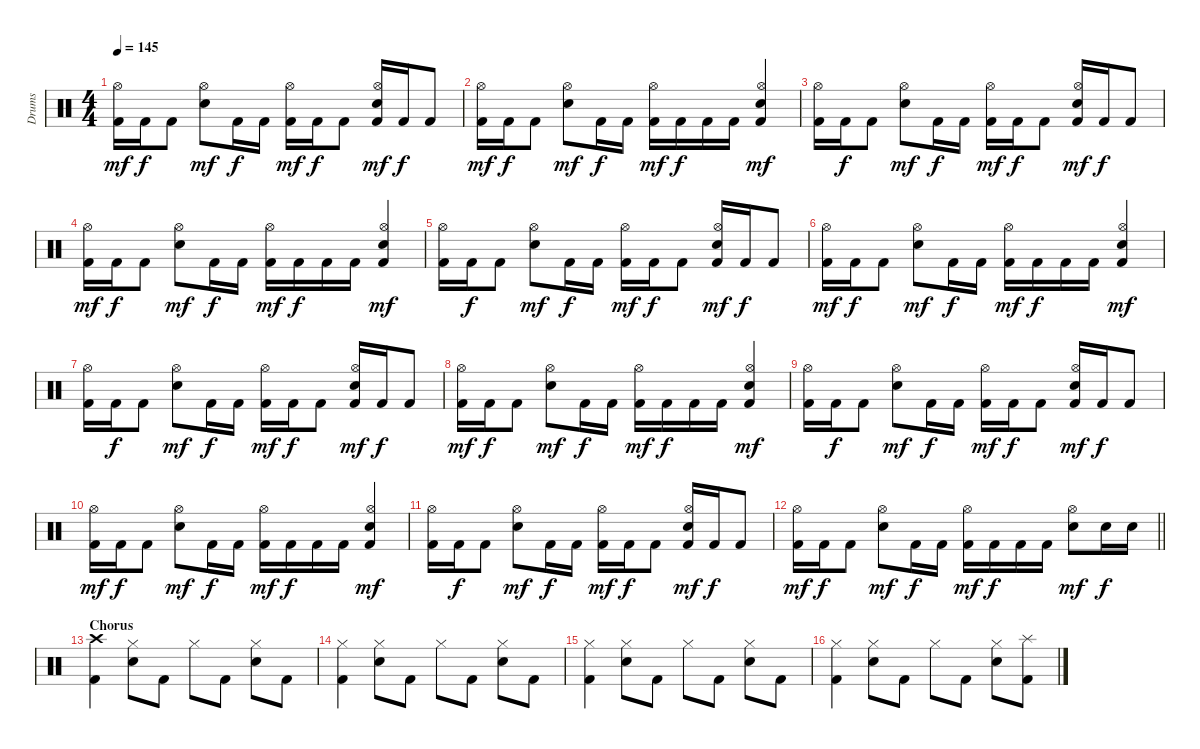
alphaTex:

\track ("Drums" "Drums") {instrument percussion}
\staff {score}
\articulation defaults
\ts (4 4)
\tempo 145
\clef neutral
\ks c
("Kick (hit) 2" "Hi-Hat (open)").16{dy mf} "Kick (hit) 2".16{dy f} "Kick (hit) 2".8 ("Hi-Hat (open)" "Electric Snare (hit)").8{dy mf} "Kick (hit) 2".16{dy f} "Kick (hit) 2".16 ("Kick (hit) 2" "Hi-Hat (open)").16{dy mf} "Kick (hit) 2".16{dy f} "Kick (hit) 2".8 ("Kick (hit) 2" "Hi-Hat (open)" "Electric Snare (hit)").16{dy mf} "Kick (hit) 2".16{dy f} "Kick (hit) 2".8 |
("Kick (hit) 2" "Hi-Hat (open)").16{dy mf} "Kick (hit) 2".16{dy f} "Kick (hit) 2".8 ("Hi-Hat (open)" "Electric Snare (hit)").8{dy mf} "Kick (hit) 2".16{dy f} "Kick (hit) 2".16 ("Kick (hit) 2" "Hi-Hat (open)").16{dy mf} "Kick (hit) 2".16{dy f} "Kick (hit) 2".16 "Kick (hit) 2".16 ("Kick (hit) 2" "Hi-Hat (open)" "Electric Snare (hit)").4{dy mf} |
("Kick (hit) 2" "Hi-Hat (open)").16 "Kick (hit) 2".16{dy f} "Kick (hit) 2".8 ("Hi-Hat (open)" "Electric Snare (hit)").8{dy mf} "Kick (hit) 2".16{dy f} "Kick (hit) 2".16 ("Kick (hit) 2" "Hi-Hat (open)").16{dy mf} "Kick (hit) 2".16{dy f} "Kick (hit) 2".8 ("Kick (hit) 2" "Hi-Hat (open)" "Electric Snare (hit)").16{dy mf} "Kick (hit) 2".16{dy f} "Kick (hit) 2".8 |
("Kick (hit) 2" "Hi-Hat (open)").16{dy mf} "Kick (hit) 2".16{dy f} "Kick (hit) 2".8 ("Hi-Hat (open)" "Electric Snare (hit)").8{dy mf} "Kick (hit) 2".16{dy f} "Kick (hit) 2".16 ("Kick (hit) 2" "Hi-Hat (open)").16{dy mf} "Kick (hit) 2".16{dy f} "Kick (hit) 2".16 "Kick (hit) 2".16 ("Kick (hit) 2" "Hi-Hat (open)" "Electric Snare (hit)").4{dy mf} |
("Kick (hit) 2" "Hi-Hat (open)").16 "Kick (hit) 2".16{dy f} "Kick (hit) 2".8 ("Hi-Hat (open)" "Electric Snare (hit)").8{dy mf} "Kick (hit) 2".16{dy f} "Kick (hit) 2".16 ("Kick (hit) 2" "Hi-Hat (open)").16{dy mf} "Kick (hit) 2".16{dy f} "Kick (hit) 2".8 ("Kick (hit) 2" "Hi-Hat (open)" "Electric Snare (hit)").16{dy mf} "Kick (hit) 2".16{dy f} "Kick (hit) 2".8 |
("Kick (hit) 2" "Hi-Hat (open)").16{dy mf} "Kick (hit) 2".16{dy f} "Kick (hit) 2".8 ("Hi-Hat (open)" "Electric Snare (hit)").8{dy mf} "Kick (hit) 2".16{dy f} "Kick (hit) 2".16 ("Kick (hit) 2" "Hi-Hat (open)").16{dy mf} "Kick (hit) 2".16{dy f} "Kick (hit) 2".16 "Kick (hit) 2".16 ("Kick (hit) 2" "Hi-Hat (open)" "Electric Snare (hit)").4{dy mf} |
("Kick (hit) 2" "Hi-Hat (open)").16 "Kick (hit) 2".16{dy f} "Kick (hit) 2".8 ("Hi-Hat (open)" "Electric Snare (hit)").8{dy mf} "Kick (hit) 2".16{dy f} "Kick (hit) 2".16 ("Kick (hit) 2" "Hi-Hat (open)").16{dy mf} "Kick (hit) 2".16{dy f} "Kick (hit) 2".8 ("Kick (hit) 2" "Hi-Hat (open)" "Electric Snare (hit)").16{dy mf} "Kick (hit) 2".16{dy f} "Kick (hit) 2".8 |
("Kick (hit) 2" "Hi-Hat (open)").16{dy mf} "Kick (hit) 2".16{dy f} "Kick (hit) 2".8 ("Hi-Hat (open)" "Electric Snare (hit)").8{dy mf} "Kick (hit) 2".16{dy f} "Kick (hit) 2".16 ("Kick (hit) 2" "Hi-Hat (open)").16{dy mf} "Kick (hit) 2".16{dy f} "Kick (hit) 2".16 "Kick (hit) 2".16 ("Kick (hit) 2" "Hi-Hat (open)" "Electric Snare (hit)").4{dy mf} |
("Kick (hit) 2" "Hi-Hat (open)").16 "Kick (hit) 2".16{dy f} "Kick (hit) 2".8 ("Hi-Hat (open)" "Electric Snare (hit)").8{dy mf} "Kick (hit) 2".16{dy f} "Kick (hit) 2".16 ("Kick (hit) 2" "Hi-Hat (open)").16{dy mf} "Kick (hit) 2".16{dy f} "Kick (hit) 2".8 ("Kick (hit) 2" "Hi-Hat (open)" "Electric Snare (hit)").16{dy mf} "Kick (hit) 2".16{dy f} "Kick (hit) 2".8 |
("Kick (hit) 2" "Hi-Hat (open)").16{dy mf} "Kick (hit) 2".16{dy f} "Kick (hit) 2".8 ("Hi-Hat (open)" "Electric Snare (hit)").8{dy mf} "Kick (hit) 2".16{dy f} "Kick (hit) 2".16 ("Kick (hit) 2" "Hi-Hat (open)").16{dy mf} "Kick (hit) 2".16{dy f} "Kick (hit) 2".16 "Kick (hit) 2".16 ("Kick (hit) 2" "Hi-Hat (open)" "Electric Snare (hit)").4{dy mf} |
("Kick (hit) 2" "Hi-Hat (open)").16 "Kick (hit) 2".16{dy f} "Kick (hit) 2".8 ("Hi-Hat (open)" "Electric Snare (hit)").8{dy mf} "Kick (hit) 2".16{dy f} "Kick (hit) 2".16 ("Kick (hit) 2" "Hi-Hat (open)").16{dy mf} "Kick (hit) 2".16{dy f} "Kick (hit) 2".8 ("Kick (hit) 2" "Hi-Hat (open)" "Electric Snare (hit)").16{dy mf} "Kick (hit) 2".16{dy f} "Kick (hit) 2".8 |
\barLineRight lightlight
("Kick (hit) 2" "Hi-Hat (open)").16{dy mf} "Kick (hit) 2".16{dy f} "Kick (hit) 2".8 ("Hi-Hat (open)" "Electric Snare (hit)").8{dy mf} "Kick (hit) 2".16{dy f} "Kick (hit) 2".16 ("Kick (hit) 2" "Hi-Hat (open)").16{dy mf} "Kick (hit) 2".16{dy f} "Kick (hit) 2".16 "Kick (hit) 2".16 ("Hi-Hat (open)" "Electric Snare (hit)").8{dy mf} "Electric Snare (hit)".16{dy f} "Electric Snare (hit)".16 |
\section ("" "Chorus")
("Kick (hit) 2" "Crash high (hit)").4 ("Hi-Hat (closed)" "Electric Snare (hit)").8 "Kick (hit) 2".8 "Hi-Hat (closed)".8 "Kick (hit) 2".8 ("Hi-Hat (closed)" "Electric Snare (hit)").8 "Kick (hit) 2".8 |
("Kick (hit) 2" "Hi-Hat (closed)").4 ("Hi-Hat (closed)" "Electric Snare (hit)").8 "Kick (hit) 2".8 "Hi-Hat (closed)".8 "Kick (hit) 2".8 ("Hi-Hat (closed)" "Electric Snare (hit)").8 "Kick (hit) 2".8 |
("Kick (hit) 2" "Hi-Hat (closed)").4 ("Hi-Hat (closed)" "Electric Snare (hit)").8 "Kick (hit) 2".8 "Hi-Hat (closed)".8 "Kick (hit) 2".8 ("Hi-Hat (closed)" "Electric Snare (hit)").8 "Kick (hit) 2".8 |
("Kick (hit) 2" "Hi-Hat (closed)").4 ("Hi-Hat (closed)" "Electric Snare (hit)").8 "Kick (hit) 2".8 "Hi-Hat (closed)".8 "Kick (hit) 2".8 ("Hi-Hat (closed)" "Electric Snare (hit)").8 ("Kick (hit) 2" "Splash (hit)").8
